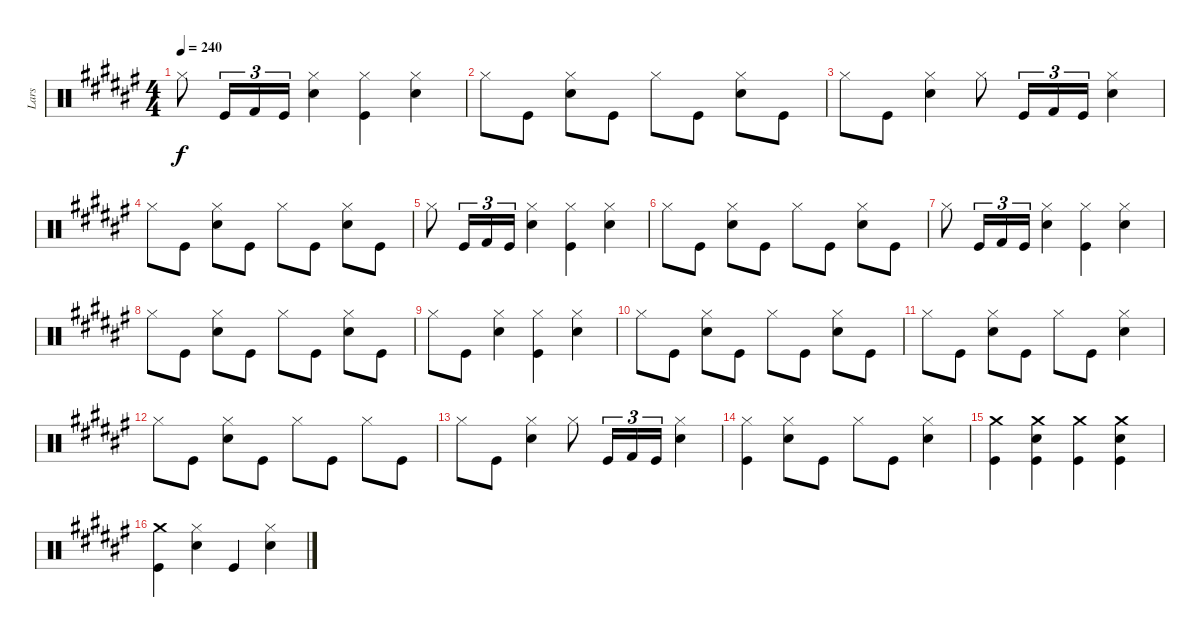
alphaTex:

\track ("Lars" "Lars") {instrument percussion}
\staff {score}
\articulation defaults
\ts (4 4)
\tempo 240
\clef neutral
\ks f# "Hi-Hat (closed)".8{dy f} "Kick (hit)".16{tu (3 2)} "Kick (hit) 2".16{tu (3 2)} "Kick (hit)".16{tu (3 2)}
("Snare (hit) 2" "Hi-Hat (closed)").4 ("Kick (hit)" "Hi-Hat (closed)").4 ("Hi-Hat (closed)" "Snare (hit) 2").4 |
"Hi-Hat (closed)".8 "Kick (hit)".8 ("Snare (hit) 2" "Hi-Hat (closed)").8 "Kick (hit)".8 "Hi-Hat (closed)".8 "Kick (hit)".8 ("Snare (hit) 2" "Hi-Hat (closed)").8 "Kick (hit)".8 |
"Hi-Hat (closed)".8 "Kick (hit)".8 ("Snare (hit) 2" "Hi-Hat (closed)").4 "Hi-Hat (closed)".8 "Kick (hit)".16{tu (3 2)} "Kick (hit) 2".16{tu (3 2)} "Kick (hit)".16{tu (3 2)} ("Snare (hit) 2" "Hi-Hat (closed)").4 |
"Hi-Hat (closed)".8 "Kick (hit)".8 ("Snare (hit) 2" "Hi-Hat (closed)").8 "Kick (hit)".8 "Hi-Hat (closed)".8 "Kick (hit)".8 ("Snare (hit) 2" "Hi-Hat (closed)").8 "Kick (hit)".8 |
"Hi-Hat (closed)".8 "Kick (hit)".16{tu (3 2)} "Kick (hit) 2".16{tu (3 2)} "Kick (hit)".16{tu (3 2)} ("Snare (hit) 2" "Hi-Hat (closed)").4 ("Kick (hit)" "Hi-Hat (closed)").4 ("Hi-Hat (closed)" "Snare (hit) 2").4 |
"Hi-Hat (closed)".8 "Kick (hit)".8 ("Snare (hit) 2" "Hi-Hat (closed)").8 "Kick (hit)".8 "Hi-Hat (closed)".8 "Kick (hit)".8 ("Snare (hit) 2" "Hi-Hat (closed)").8 "Kick (hit)".8 |
"Hi-Hat (closed)".8 "Kick (hit)".16{tu (3 2)} "Kick (hit) 2".16{tu (3 2)} "Kick (hit)".16{tu (3 2)} ("Snare (hit) 2" "Hi-Hat (closed)").4 ("Kick (hit)" "Hi-Hat (closed)").4 ("Hi-Hat (closed)" "Snare (hit) 2").4 |
"Hi-Hat (closed)".8 "Kick (hit)".8 ("Snare (hit) 2" "Hi-Hat (closed)").8 "Kick (hit)".8 "Hi-Hat (closed)".8 "Kick (hit)".8 ("Snare (hit) 2" "Hi-Hat (closed)").8 "Kick (hit)".8 |
"Hi-Hat (closed)".8 "Kick (hit)".8 ("Snare (hit) 2" "Hi-Hat (closed)").4 ("Hi-Hat (closed)" "Kick (hit)").4 ("Snare (hit) 2" "Hi-Hat (closed)").4 |
"Hi-Hat (closed)".8 "Kick (hit)".8 ("Snare (hit) 2" "Hi-Hat (closed)").8 "Kick (hit)".8 "Hi-Hat (closed)".8 "Kick (hit)".8 ("Snare (hit) 2" "Hi-Hat (closed)").8 "Kick (hit)".8 |
"Hi-Hat (closed)".8 "Kick (hit)".8 ("Snare (hit) 2" "Hi-Hat (closed)").8 "Kick (hit)".8 "Hi-Hat (closed)".8 "Kick (hit)".8 ("Snare (hit) 2" "Hi-Hat (closed)").4 |
"Hi-Hat (closed)".8 "Kick (hit)".8 ("Snare (hit) 2" "Hi-Hat (closed)").8 "Kick (hit)".8 "Hi-Hat (closed)".8 "Kick (hit)".8 "Hi-Hat (closed)".8 "Kick (hit)".8 |
"Hi-Hat (closed)".8 "Kick (hit)".8 ("Snare (hit) 2" "Hi-Hat (closed)").4 "Hi-Hat (closed)".8 "Kick (hit)".16{tu (3 2)} "Kick (hit) 2".16{tu (3 2)} "Kick (hit)".16{tu (3 2)} ("Snare (hit) 2" "Hi-Hat (closed)").4 |
("Kick (hit)" "Hi-Hat (closed)").4 ("Snare (hit) 2" "Hi-Hat (closed)").8 "Kick (hit)".8 "Hi-Hat (closed)".8 "Kick (hit)".8 ("Snare (hit) 2" "Hi-Hat (closed)").4 |
("Kick (hit)" "Crash medium (hit)").4 ("Kick (hit)" "Snare (hit) 2" "Crash medium (hit)").4 ("Kick (hit)" "Crash medium (hit)").4 ("Kick (hit)" "Snare (hit) 2" "Crash medium (hit)").4 |
("Crash medium (hit)" "Kick (hit)").4 ("Hi-Hat (closed)" "Snare (hit) 2").4 "Kick (hit)".4 ("Snare (hit) 2" "Hi-Hat (closed)").4
